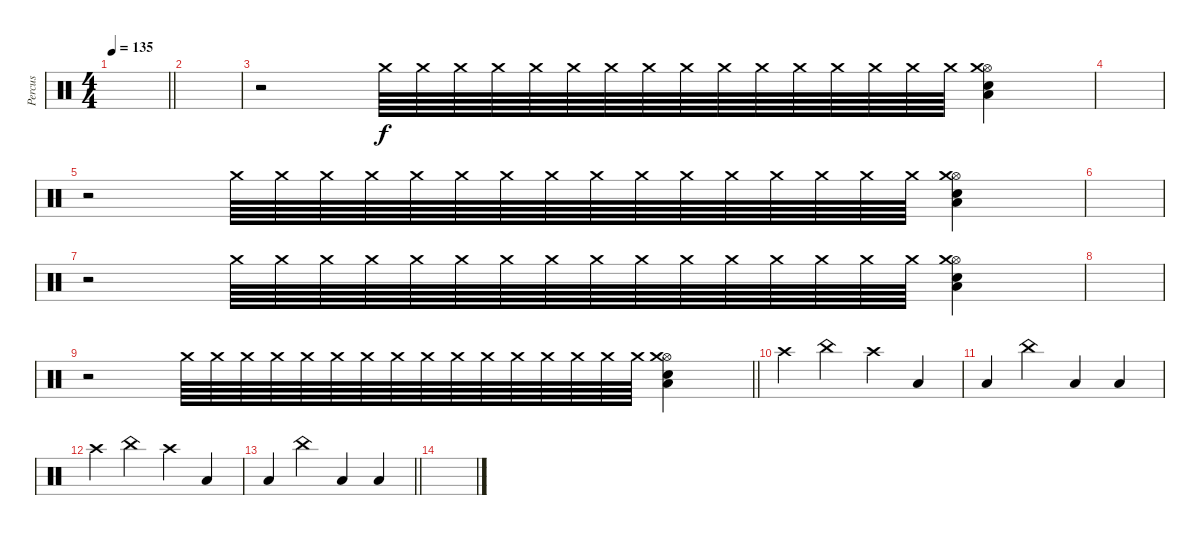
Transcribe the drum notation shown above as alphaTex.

\track ("Percus" "Percus") {instrument percussion}
\staff {score}
\articulation defaults
\ts (4 4)
\tempo 135
\clef neutral
\barLineRight lightlight
\ks c
|
\section ("" "")
|
r.2 "Crash medium (hit)".64 "Crash medium (hit)".64 "Crash medium (hit)".64 "Crash medium (hit)".64 "Crash medium (hit)".64 "Crash medium (hit)".64 "Crash medium (hit)".64 "Crash medium (hit)".64 "Crash medium (hit)".64 "Crash medium (hit)".64 "Crash medium (hit)".64 "Crash medium (hit)".64 "Crash medium (hit)".64 "Crash medium (hit)".64 "Crash medium (hit)".64 "Crash medium (hit)".64 ("Hi-Hat (open)" "Low Floor Tom (hit)" "Electric Snare (hit)" "Crash medium (hit)").4 |
|
r.2 "Crash medium (hit)".64 "Crash medium (hit)".64 "Crash medium (hit)".64 "Crash medium (hit)".64 "Crash medium (hit)".64 "Crash medium (hit)".64 "Crash medium (hit)".64 "Crash medium (hit)".64 "Crash medium (hit)".64 "Crash medium (hit)".64 "Crash medium (hit)".64 "Crash medium (hit)".64 "Crash medium (hit)".64 "Crash medium (hit)".64 "Crash medium (hit)".64 "Crash medium (hit)".64 ("Hi-Hat (open)" "Low Floor Tom (hit)" "Electric Snare (hit)" "Crash medium (hit)").4 |
|
r.2 "Crash medium (hit)".64 "Crash medium (hit)".64 "Crash medium (hit)".64 "Crash medium (hit)".64 "Crash medium (hit)".64 "Crash medium (hit)".64 "Crash medium (hit)".64 "Crash medium (hit)".64 "Crash medium (hit)".64 "Crash medium (hit)".64 "Crash medium (hit)".64 "Crash medium (hit)".64 "Crash medium (hit)".64 "Crash medium (hit)".64 "Crash medium (hit)".64 "Crash medium (hit)".64 ("Hi-Hat (open)" "Low Floor Tom (hit)" "Electric Snare (hit)" "Crash medium (hit)").4 |
|
\barLineRight lightlight
r.2 "Crash medium (hit)".64 "Crash medium (hit)".64 "Crash medium (hit)".64 "Crash medium (hit)".64 "Crash medium (hit)".64 "Crash medium (hit)".64 "Crash medium (hit)".64 "Crash medium (hit)".64 "Crash medium (hit)".64 "Crash medium (hit)".64 "Crash medium (hit)".64 "Crash medium (hit)".64 "Crash medium (hit)".64 "Crash medium (hit)".64 "Crash medium (hit)".64 "Crash medium (hit)".64 ("Hi-Hat (open)" "Low Floor Tom (hit)" "Electric Snare (hit)" "Crash medium (hit)").4 |
\section ("" "")
"Crash high (hit)".4 "China (hit)".4 "Crash high (hit)".4 "Low Floor Tom (hit)".4 |
"Low Tom (hit)".4 "China (hit)".4 "Low Tom (hit)".4 "Low Floor Tom (hit)".4 |
"Crash high (hit)".4 "China (hit)".4 "Crash high (hit)".4 "Low Floor Tom (hit)".4 |
\barLineRight lightlight "Low Tom (hit)".4 "China (hit)".4 "Low Tom (hit)".4 "Low Floor Tom (hit)".4
|
\section ("" "")
